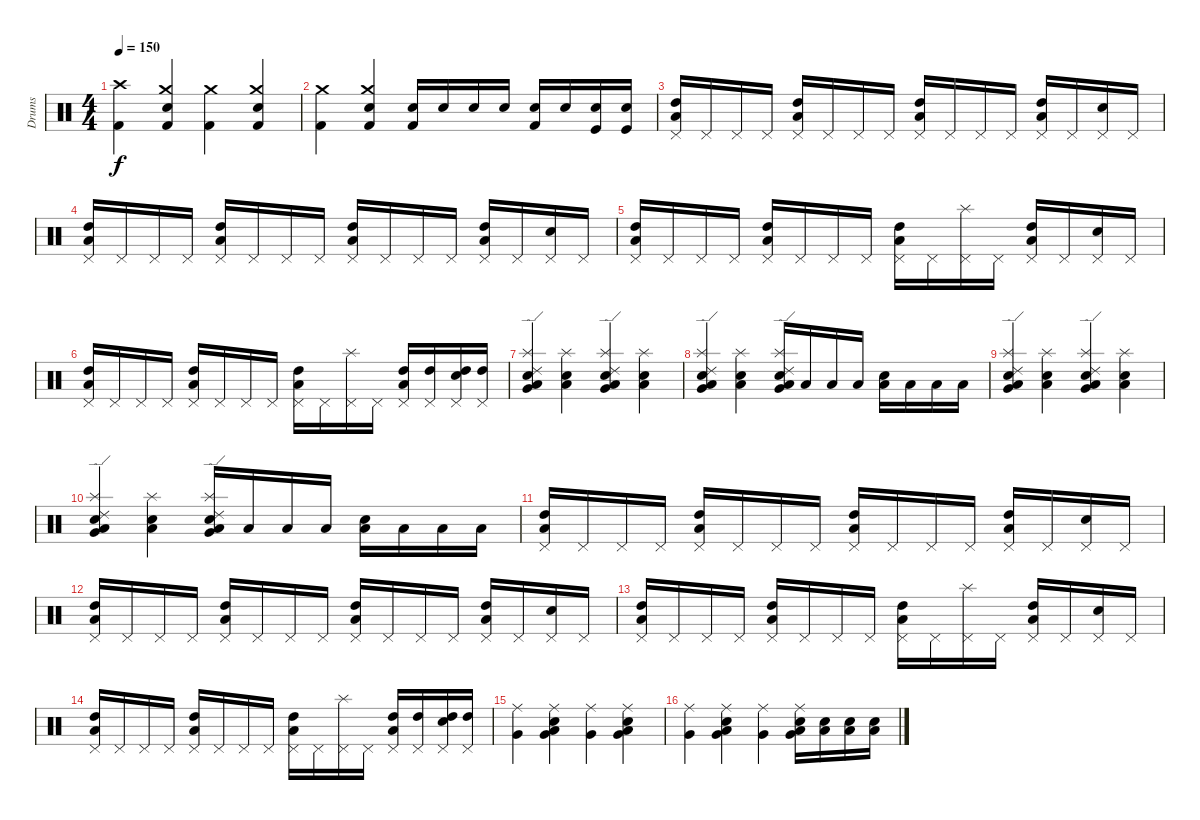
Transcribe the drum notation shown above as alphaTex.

\track ("Drums" "Drums") {instrument percussion}
\staff {score}
\articulation defaults
\ts (4 4)
\tempo 150
\clef neutral
\ks c
("Crash high (hit)" "Kick (hit) 2").4{dy f} ("Crash medium (hit)" "Kick (hit) 2" "Electric Snare (hit)").4 ("Crash medium (hit)" "Kick (hit) 2").4 ("Crash medium (hit)" "Kick (hit) 2" "Electric Snare (hit)").4 |
("Crash medium (hit)" "Kick (hit) 2").4 ("Crash medium (hit)" "Kick (hit) 2" "Electric Snare (hit)").4 ("Kick (hit) 2" "Electric Snare (hit)").16 "Electric Snare (hit)".16 "Electric Snare (hit)".16 "Electric Snare (hit)".16 ("Snare (hit) 2" "Kick (hit) 2").16 "Snare (hit) 2".16 ("Kick (hit)" "Snare (hit) 2").16 ("Kick (hit)" "Snare (hit) 2").16 |
("High Tom (hit)" "Low Tom (hit)" "Pedal Hi-Hat (hit)").16 "Pedal Hi-Hat (hit)".16 "Pedal Hi-Hat (hit)".16 "Pedal Hi-Hat (hit)".16 ("High Tom (hit)" "Low Tom (hit)" "Pedal Hi-Hat (hit)").16 "Pedal Hi-Hat (hit)".16 "Pedal Hi-Hat (hit)".16 "Pedal Hi-Hat (hit)".16 ("High Tom (hit)" "Low Tom (hit)" "Pedal Hi-Hat (hit)").16 "Pedal Hi-Hat (hit)".16 "Pedal Hi-Hat (hit)".16 "Pedal Hi-Hat (hit)".16 ("High Tom (hit)" "Low Tom (hit)" "Pedal Hi-Hat (hit)").16 "Pedal Hi-Hat (hit)".16 ("Pedal Hi-Hat (hit)" "Electric Snare (hit)").16 "Pedal Hi-Hat (hit)".16 |
("High Tom (hit)" "Low Tom (hit)" "Pedal Hi-Hat (hit)").16 "Pedal Hi-Hat (hit)".16 "Pedal Hi-Hat (hit)".16 "Pedal Hi-Hat (hit)".16 ("High Tom (hit)" "Low Tom (hit)" "Pedal Hi-Hat (hit)").16 "Pedal Hi-Hat (hit)".16 "Pedal Hi-Hat (hit)".16 "Pedal Hi-Hat (hit)".16 ("High Tom (hit)" "Low Tom (hit)" "Pedal Hi-Hat (hit)").16 "Pedal Hi-Hat (hit)".16 "Pedal Hi-Hat (hit)".16 "Pedal Hi-Hat (hit)".16 ("High Tom (hit)" "Low Tom (hit)" "Pedal Hi-Hat (hit)").16 "Pedal Hi-Hat (hit)".16 ("Electric Snare (hit)" "Pedal Hi-Hat (hit)").16 "Pedal Hi-Hat (hit)".16 |
("High Tom (hit)" "Low Tom (hit)" "Pedal Hi-Hat (hit)").16 "Pedal Hi-Hat (hit)".16 "Pedal Hi-Hat (hit)".16 "Pedal Hi-Hat (hit)".16 ("High Tom (hit)" "Low Tom (hit)" "Pedal Hi-Hat (hit)").16 "Pedal Hi-Hat (hit)".16 "Pedal Hi-Hat (hit)".16 "Pedal Hi-Hat (hit)".16 ("High Tom (hit)" "Low Tom (hit)" "Pedal Hi-Hat (hit)").16 "Pedal Hi-Hat (hit)".16 ("Pedal Hi-Hat (hit)" "Splash (hit)").16 "Pedal Hi-Hat (hit)".16 ("High Tom (hit)" "Low Tom (hit)" "Pedal Hi-Hat (hit)").16 "Pedal Hi-Hat (hit)".16 ("Electric Snare (hit)" "Pedal Hi-Hat (hit)").16 "Pedal Hi-Hat (hit)".16 |
("High Tom (hit)" "Low Tom (hit)" "Pedal Hi-Hat (hit)").16 "Pedal Hi-Hat (hit)".16 "Pedal Hi-Hat (hit)".16 "Pedal Hi-Hat (hit)".16 ("High Tom (hit)" "Low Tom (hit)" "Pedal Hi-Hat (hit)").16 "Pedal Hi-Hat (hit)".16 "Pedal Hi-Hat (hit)".16 "Pedal Hi-Hat (hit)".16 ("High Tom (hit)" "Low Tom (hit)" "Pedal Hi-Hat (hit)").16 "Pedal Hi-Hat (hit)".16 ("Splash (hit)" "Pedal Hi-Hat (hit)").16 "Pedal Hi-Hat (hit)".16 ("High Tom (hit)" "Low Tom (hit)" "Pedal Hi-Hat (hit)").16 ("High Tom (hit)" "Pedal Hi-Hat (hit)").16 ("Electric Snare (hit)" "High Tom (hit)" "Pedal Hi-Hat (hit)").16 ("High Tom (hit)" "Pedal Hi-Hat (hit)").16 |
("Ride (edge) 2" "Splash (hit)" "Very Low Tom (hit)" "Low Tom (hit)" "Snare (hit) 2").4 ("Splash (hit)" "Low Tom (hit)" "Snare (hit) 2").4 ("Ride (edge) 2" "Splash (hit)" "Very Low Tom (hit)" "Low Tom (hit)" "Snare (hit) 2").4 ("Splash (hit)" "Low Tom (hit)" "Snare (hit) 2").4 |
("Ride (edge) 2" "Splash (hit)" "Very Low Tom (hit)" "Low Tom (hit)" "Snare (hit) 2").4 ("Splash (hit)" "Low Tom (hit)" "Snare (hit) 2").4 ("Ride (edge) 2" "Splash (hit)" "Very Low Tom (hit)" "Low Tom (hit)" "Snare (hit) 2").16 "Low Tom (hit)".16 "Low Tom (hit)".16 "Low Tom (hit)".16 ("Low Tom (hit)" "Snare (hit) 2").16 "Low Tom (hit)".16 "Low Tom (hit)".16 "Low Tom (hit)".16 |
("Ride (edge) 2" "Splash (hit)" "Very Low Tom (hit)" "Low Tom (hit)" "Snare (hit) 2").4 ("Splash (hit)" "Low Tom (hit)" "Snare (hit) 2").4 ("Ride (edge) 2" "Splash (hit)" "Very Low Tom (hit)" "Low Tom (hit)" "Snare (hit) 2").4 ("Splash (hit)" "Low Tom (hit)" "Snare (hit) 2").4 |
("Ride (edge) 2" "Splash (hit)" "Very Low Tom (hit)" "Low Tom (hit)" "Snare (hit) 2").4 ("Splash (hit)" "Low Tom (hit)" "Snare (hit) 2").4 ("Ride (edge) 2" "Splash (hit)" "Very Low Tom (hit)" "Low Tom (hit)" "Snare (hit) 2").16 "Low Tom (hit)".16 "Low Tom (hit)".16 "Low Tom (hit)".16 ("Low Tom (hit)" "Snare (hit) 2").16 "Low Tom (hit)".16 "Low Tom (hit)".16 "Low Tom (hit)".16 |
("High Tom (hit)" "Low Tom (hit)" "Pedal Hi-Hat (hit)").16 "Pedal Hi-Hat (hit)".16 "Pedal Hi-Hat (hit)".16 "Pedal Hi-Hat (hit)".16 ("High Tom (hit)" "Low Tom (hit)" "Pedal Hi-Hat (hit)").16 "Pedal Hi-Hat (hit)".16 "Pedal Hi-Hat (hit)".16 "Pedal Hi-Hat (hit)".16 ("High Tom (hit)" "Low Tom (hit)" "Pedal Hi-Hat (hit)").16 "Pedal Hi-Hat (hit)".16 "Pedal Hi-Hat (hit)".16 "Pedal Hi-Hat (hit)".16 ("High Tom (hit)" "Low Tom (hit)" "Pedal Hi-Hat (hit)").16 "Pedal Hi-Hat (hit)".16 ("Electric Snare (hit)" "Pedal Hi-Hat (hit)").16 "Pedal Hi-Hat (hit)".16 |
("High Tom (hit)" "Low Tom (hit)" "Pedal Hi-Hat (hit)").16 "Pedal Hi-Hat (hit)".16 "Pedal Hi-Hat (hit)".16 "Pedal Hi-Hat (hit)".16 ("High Tom (hit)" "Low Tom (hit)" "Pedal Hi-Hat (hit)").16 "Pedal Hi-Hat (hit)".16 "Pedal Hi-Hat (hit)".16 "Pedal Hi-Hat (hit)".16 ("High Tom (hit)" "Low Tom (hit)" "Pedal Hi-Hat (hit)").16 "Pedal Hi-Hat (hit)".16 "Pedal Hi-Hat (hit)".16 "Pedal Hi-Hat (hit)".16 ("High Tom (hit)" "Low Tom (hit)" "Pedal Hi-Hat (hit)").16 "Pedal Hi-Hat (hit)".16 ("Electric Snare (hit)" "Pedal Hi-Hat (hit)").16 "Pedal Hi-Hat (hit)".16 |
("High Tom (hit)" "Low Tom (hit)" "Pedal Hi-Hat (hit)").16 "Pedal Hi-Hat (hit)".16 "Pedal Hi-Hat (hit)".16 "Pedal Hi-Hat (hit)".16 ("High Tom (hit)" "Low Tom (hit)" "Pedal Hi-Hat (hit)").16 "Pedal Hi-Hat (hit)".16 "Pedal Hi-Hat (hit)".16 "Pedal Hi-Hat (hit)".16 ("High Tom (hit)" "Low Tom (hit)" "Pedal Hi-Hat (hit)").16 "Pedal Hi-Hat (hit)".16 ("Splash (hit)" "Pedal Hi-Hat (hit)").16 "Pedal Hi-Hat (hit)".16 ("High Tom (hit)" "Low Tom (hit)" "Pedal Hi-Hat (hit)").16 "Pedal Hi-Hat (hit)".16 ("Electric Snare (hit)" "Pedal Hi-Hat (hit)").16 "Pedal Hi-Hat (hit)".16 |
("High Tom (hit)" "Low Tom (hit)" "Pedal Hi-Hat (hit)").16 "Pedal Hi-Hat (hit)".16 "Pedal Hi-Hat (hit)".16 "Pedal Hi-Hat (hit)".16 ("High Tom (hit)" "Low Tom (hit)" "Pedal Hi-Hat (hit)").16 "Pedal Hi-Hat (hit)".16 "Pedal Hi-Hat (hit)".16 "Pedal Hi-Hat (hit)".16 ("High Tom (hit)" "Low Tom (hit)" "Pedal Hi-Hat (hit)").16 "Pedal Hi-Hat (hit)".16 ("Splash (hit)" "Pedal Hi-Hat (hit)").16 "Pedal Hi-Hat (hit)".16 ("High Tom (hit)" "Low Tom (hit)" "Pedal Hi-Hat (hit)").16 ("High Tom (hit)" "Pedal Hi-Hat (hit)").16 ("Electric Snare (hit)" "High Tom (hit)" "Pedal Hi-Hat (hit)").16 ("High Tom (hit)" "Pedal Hi-Hat (hit)").16 |
("Ride (middle)" "Very Low Tom (hit)").4 ("Ride (middle)" "Electric Snare (hit)" "Low Tom (hit)" "Very Low Tom (hit)").4 ("Ride (middle)" "Very Low Tom (hit)").4 ("Ride (middle)" "Electric Snare (hit)" "Low Tom (hit)" "Very Low Tom (hit)").4 |
("Ride (middle)" "Very Low Tom (hit)").4 ("Ride (middle)" "Electric Snare (hit)" "Low Tom (hit)" "Very Low Tom (hit)").4 ("Ride (middle)" "Very Low Tom (hit)").4 ("Ride (middle)" "Electric Snare (hit)" "Low Tom (hit)" "Very Low Tom (hit)").16 ("Electric Snare (hit)" "Low Tom (hit)").16 ("Electric Snare (hit)" "Low Tom (hit)").16 ("Electric Snare (hit)" "Low Tom (hit)").16
